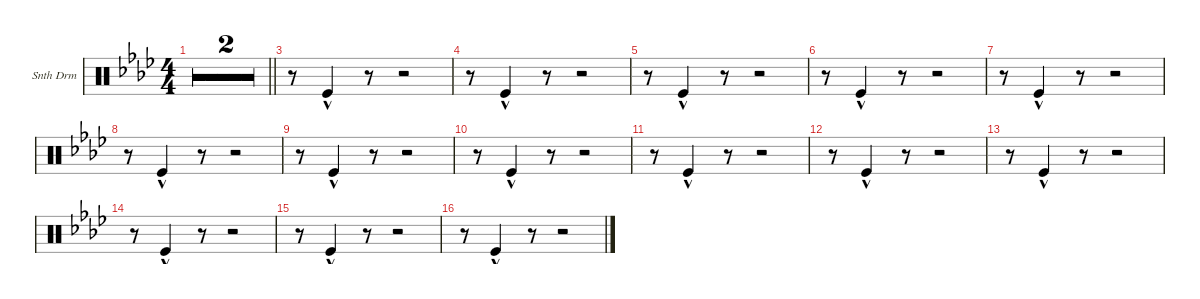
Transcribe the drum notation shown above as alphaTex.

\defaultSystemsLayout 4
\hideDynamics
\bracketExtendMode groupsimilarinstruments
\firstSystemTrackNameOrientation horizontal
\otherSystemsTrackNameOrientation horizontal
\track ("Synth Drum" "Snth Drm") {multiBarRest instrument percussion}
\staff {score}
\articulation defaults
\ts (4 4)
\tempo 142
\clef neutral
\barLineRight lightlight
\ks ab
r.1{dy f} |
\barLineRight lightlight
r.1 |
r.8 "Kick (hit)"{hac}.4 r.8 r.2 |
r.8 "Kick (hit)"{hac}.4 r.8 r.2 |
r.8 "Kick (hit)"{hac}.4 r.8 r.2 |
r.8 "Kick (hit)"{hac}.4 r.8 r.2 |
r.8 "Kick (hit)"{hac}.4 r.8 r.2 |
r.8 "Kick (hit)"{hac}.4 r.8 r.2 |
r.8 "Kick (hit)"{hac}.4 r.8 r.2 |
r.8 "Kick (hit)"{hac}.4 r.8 r.2 |
r.8 "Kick (hit)"{hac}.4 r.8 r.2 |
r.8 "Kick (hit)"{hac}.4 r.8 r.2 |
r.8 "Kick (hit)"{hac}.4 r.8 r.2 |
r.8 "Kick (hit)"{hac}.4 r.8 r.2 |
r.8 "Kick (hit)"{hac}.4 r.8 r.2 |
r.8 "Kick (hit)"{hac}.4 r.8 r.2
